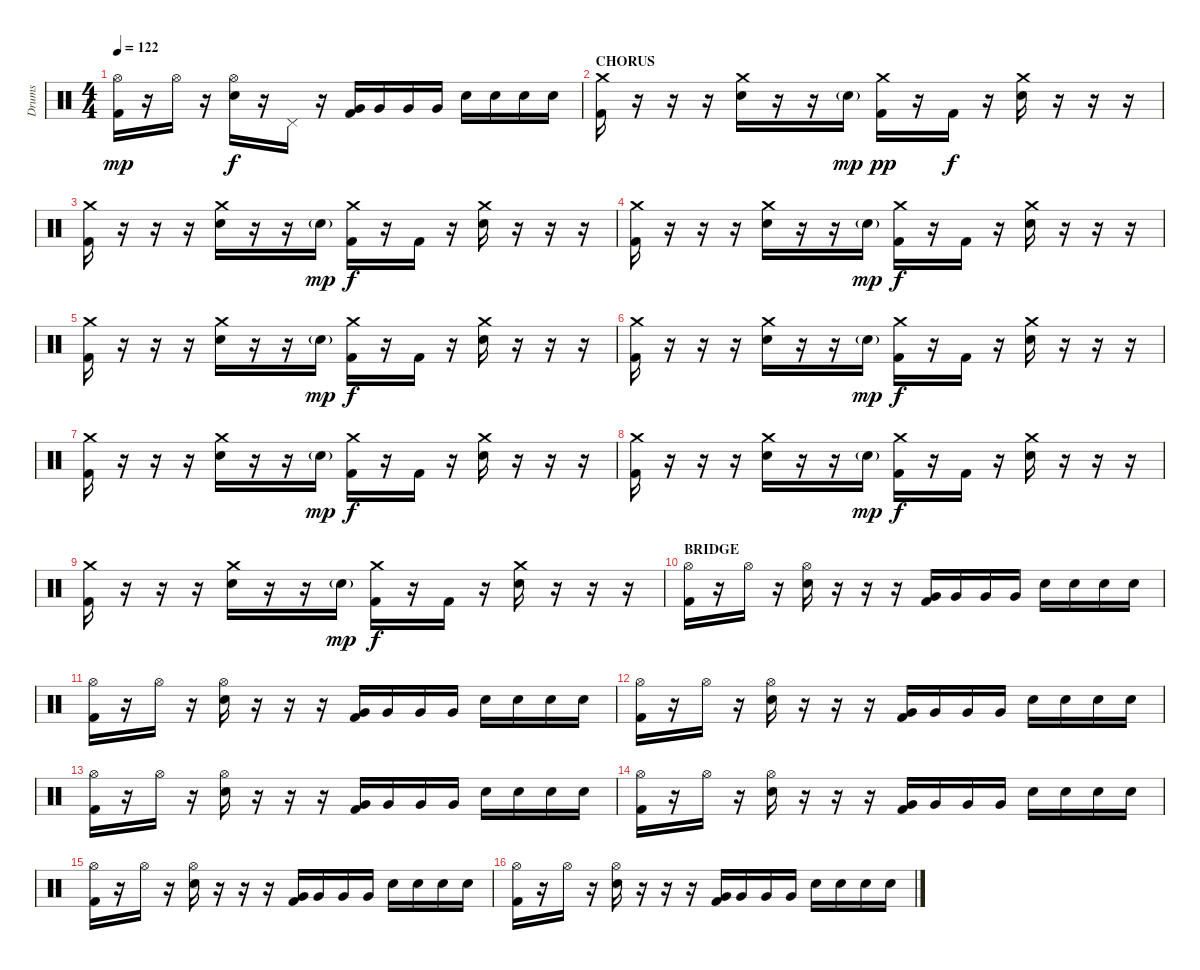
\track ("Drums" "Drums") {instrument percussion}
\staff {score}
\articulation defaults
\ts (4 4)
\tempo 122
\clef neutral
\ks c
("Hi-Hat (open)" "Kick (hit) 2").16{dy mp} r.16 "Hi-Hat (open)".16 r.16 ("Hi-Hat (open)" "Electric Snare (hit)").16{dy f} r.16 "Pedal Hi-Hat (hit)".16 r.16 ("Very Low Tom (hit)" "Kick (hit) 2").16 "Very Low Tom (hit)".16 "Very Low Tom (hit)".16 "Very Low Tom (hit)".16 "Electric Snare (hit)".16 "Electric Snare (hit)".16 "Electric Snare (hit)".16 "Electric Snare (hit)".16 |
\section ("" "CHORUS")
("Crash medium (hit)" "Kick (hit) 2").16 r.16 r.16 r.16 ("Crash medium (hit)" "Electric Snare (hit)").16 r.16 r.16 "Electric Snare (hit)"{g}.16{dy mp} ("Crash medium (hit)" "Kick (hit) 2").16{dy pp} r.16 "Kick (hit) 2".16{dy f} r.16 ("Crash medium (hit)" "Electric Snare (hit)").16 r.16 r.16 r.16 |
("Crash medium (hit)" "Kick (hit) 2").16 r.16 r.16 r.16 ("Crash medium (hit)" "Electric Snare (hit)").16 r.16 r.16 "Electric Snare (hit)"{g}.16{dy mp} ("Crash medium (hit)" "Kick (hit) 2").16{dy f} r.16 "Kick (hit) 2".16 r.16 ("Crash medium (hit)" "Electric Snare (hit)").16 r.16 r.16 r.16 |
("Crash medium (hit)" "Kick (hit) 2").16 r.16 r.16 r.16 ("Crash medium (hit)" "Electric Snare (hit)").16 r.16 r.16 "Electric Snare (hit)"{g}.16{dy mp} ("Crash medium (hit)" "Kick (hit) 2").16{dy f} r.16 "Kick (hit) 2".16 r.16 ("Crash medium (hit)" "Electric Snare (hit)").16 r.16 r.16 r.16 |
("Crash medium (hit)" "Kick (hit) 2").16 r.16 r.16 r.16 ("Crash medium (hit)" "Electric Snare (hit)").16 r.16 r.16 "Electric Snare (hit)"{g}.16{dy mp} ("Crash medium (hit)" "Kick (hit) 2").16{dy f} r.16 "Kick (hit) 2".16 r.16 ("Crash medium (hit)" "Electric Snare (hit)").16 r.16 r.16 r.16 |
("Crash medium (hit)" "Kick (hit) 2").16 r.16 r.16 r.16 ("Crash medium (hit)" "Electric Snare (hit)").16 r.16 r.16 "Electric Snare (hit)"{g}.16{dy mp} ("Crash medium (hit)" "Kick (hit) 2").16{dy f} r.16 "Kick (hit) 2".16 r.16 ("Crash medium (hit)" "Electric Snare (hit)").16 r.16 r.16 r.16 |
("Crash medium (hit)" "Kick (hit) 2").16 r.16 r.16 r.16 ("Crash medium (hit)" "Electric Snare (hit)").16 r.16 r.16 "Electric Snare (hit)"{g}.16{dy mp} ("Crash medium (hit)" "Kick (hit) 2").16{dy f} r.16 "Kick (hit) 2".16 r.16 ("Crash medium (hit)" "Electric Snare (hit)").16 r.16 r.16 r.16 |
("Crash medium (hit)" "Kick (hit) 2").16 r.16 r.16 r.16 ("Crash medium (hit)" "Electric Snare (hit)").16 r.16 r.16 "Electric Snare (hit)"{g}.16{dy mp} ("Crash medium (hit)" "Kick (hit) 2").16{dy f} r.16 "Kick (hit) 2".16 r.16 ("Crash medium (hit)" "Electric Snare (hit)").16 r.16 r.16 r.16 |
("Crash medium (hit)" "Kick (hit) 2").16 r.16 r.16 r.16 ("Crash medium (hit)" "Electric Snare (hit)").16 r.16 r.16 "Electric Snare (hit)"{g}.16{dy mp} ("Crash medium (hit)" "Kick (hit) 2").16{dy f} r.16 "Kick (hit) 2".16 r.16 ("Crash medium (hit)" "Electric Snare (hit)").16 r.16 r.16 r.16 |
\section ("" "BRIDGE")
("Hi-Hat (open)" "Kick (hit) 2").16 r.16 "Hi-Hat (open)".16 r.16 ("Hi-Hat (open)" "Electric Snare (hit)").16 r.16 r.16 r.16 ("Very Low Tom (hit)" "Kick (hit) 2").16 "Very Low Tom (hit)".16 "Very Low Tom (hit)".16 "Very Low Tom (hit)".16 "Electric Snare (hit)".16 "Electric Snare (hit)".16 "Electric Snare (hit)".16 "Electric Snare (hit)".16 |
("Hi-Hat (open)" "Kick (hit) 2").16 r.16 "Hi-Hat (open)".16 r.16 ("Hi-Hat (open)" "Electric Snare (hit)").16 r.16 r.16 r.16 ("Very Low Tom (hit)" "Kick (hit) 2").16 "Very Low Tom (hit)".16 "Very Low Tom (hit)".16 "Very Low Tom (hit)".16 "Electric Snare (hit)".16 "Electric Snare (hit)".16 "Electric Snare (hit)".16 "Electric Snare (hit)".16 |
("Hi-Hat (open)" "Kick (hit) 2").16 r.16 "Hi-Hat (open)".16 r.16 ("Hi-Hat (open)" "Electric Snare (hit)").16 r.16 r.16 r.16 ("Very Low Tom (hit)" "Kick (hit) 2").16 "Very Low Tom (hit)".16 "Very Low Tom (hit)".16 "Very Low Tom (hit)".16 "Electric Snare (hit)".16 "Electric Snare (hit)".16 "Electric Snare (hit)".16 "Electric Snare (hit)".16 |
("Hi-Hat (open)" "Kick (hit) 2").16 r.16 "Hi-Hat (open)".16 r.16 ("Hi-Hat (open)" "Electric Snare (hit)").16 r.16 r.16 r.16 ("Very Low Tom (hit)" "Kick (hit) 2").16 "Very Low Tom (hit)".16 "Very Low Tom (hit)".16 "Very Low Tom (hit)".16 "Electric Snare (hit)".16 "Electric Snare (hit)".16 "Electric Snare (hit)".16 "Electric Snare (hit)".16 |
("Hi-Hat (open)" "Kick (hit) 2").16 r.16 "Hi-Hat (open)".16 r.16 ("Hi-Hat (open)" "Electric Snare (hit)").16 r.16 r.16 r.16 ("Very Low Tom (hit)" "Kick (hit) 2").16 "Very Low Tom (hit)".16 "Very Low Tom (hit)".16 "Very Low Tom (hit)".16 "Electric Snare (hit)".16 "Electric Snare (hit)".16 "Electric Snare (hit)".16 "Electric Snare (hit)".16 |
("Hi-Hat (open)" "Kick (hit) 2").16 r.16 "Hi-Hat (open)".16 r.16 ("Hi-Hat (open)" "Electric Snare (hit)").16 r.16 r.16 r.16 ("Very Low Tom (hit)" "Kick (hit) 2").16 "Very Low Tom (hit)".16 "Very Low Tom (hit)".16 "Very Low Tom (hit)".16 "Electric Snare (hit)".16 "Electric Snare (hit)".16 "Electric Snare (hit)".16 "Electric Snare (hit)".16 |
("Hi-Hat (open)" "Kick (hit) 2").16 r.16 "Hi-Hat (open)".16 r.16 ("Hi-Hat (open)" "Electric Snare (hit)").16 r.16 r.16 r.16 ("Very Low Tom (hit)" "Kick (hit) 2").16 "Very Low Tom (hit)".16 "Very Low Tom (hit)".16 "Very Low Tom (hit)".16 "Electric Snare (hit)".16 "Electric Snare (hit)".16 "Electric Snare (hit)".16 "Electric Snare (hit)".16
